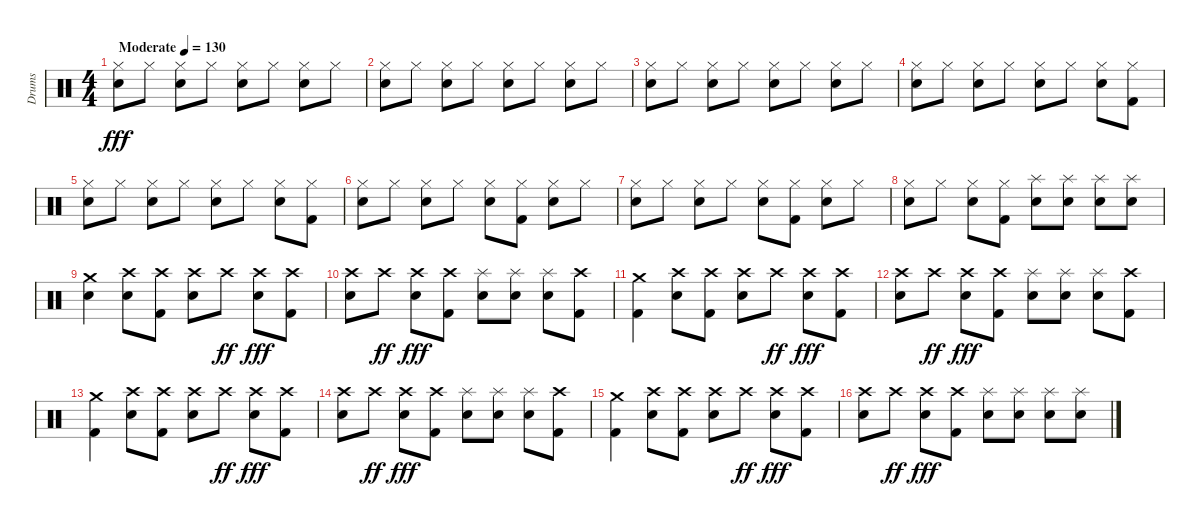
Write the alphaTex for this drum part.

\track ("Drums" "Drums") {instrument percussion}
\staff {score}
\articulation defaults
\ts (4 4)
\tempo (130 "Moderate")
\clef neutral
\ks c
("Hi-Hat (closed)" "Snare (hit) 2").8{dy fff} "Hi-Hat (closed)".8 ("Hi-Hat (closed)" "Snare (hit) 2").8 "Hi-Hat (closed)".8 ("Hi-Hat (closed)" "Snare (hit) 2").8 "Hi-Hat (closed)".8 ("Hi-Hat (closed)" "Snare (hit) 2").8 "Hi-Hat (closed)".8 |
("Hi-Hat (closed)" "Snare (hit) 2").8 "Hi-Hat (closed)".8 ("Hi-Hat (closed)" "Snare (hit) 2").8 "Hi-Hat (closed)".8 ("Hi-Hat (closed)" "Snare (hit) 2").8 "Hi-Hat (closed)".8 ("Hi-Hat (closed)" "Snare (hit) 2").8 "Hi-Hat (closed)".8 |
("Hi-Hat (closed)" "Snare (hit) 2").8 "Hi-Hat (closed)".8 ("Hi-Hat (closed)" "Snare (hit) 2").8 "Hi-Hat (closed)".8 ("Hi-Hat (closed)" "Snare (hit) 2").8 "Hi-Hat (closed)".8 ("Hi-Hat (closed)" "Snare (hit) 2").8 "Hi-Hat (closed)".8 |
("Hi-Hat (closed)" "Snare (hit) 2").8 "Hi-Hat (closed)".8 ("Hi-Hat (closed)" "Snare (hit) 2").8 "Hi-Hat (closed)".8 ("Hi-Hat (closed)" "Snare (hit) 2").8 "Hi-Hat (closed)".8 ("Hi-Hat (closed)" "Snare (hit) 2").8 ("Hi-Hat (closed)" "Kick (hit) 2").8 |
("Hi-Hat (closed)" "Snare (hit) 2").8 "Hi-Hat (closed)".8 ("Hi-Hat (closed)" "Snare (hit) 2").8 "Hi-Hat (closed)".8 ("Hi-Hat (closed)" "Snare (hit) 2").8 "Hi-Hat (closed)".8 ("Hi-Hat (closed)" "Snare (hit) 2").8 ("Hi-Hat (closed)" "Kick (hit) 2").8 |
("Hi-Hat (closed)" "Snare (hit) 2").8 "Hi-Hat (closed)".8 ("Hi-Hat (closed)" "Snare (hit) 2").8 "Hi-Hat (closed)".8 ("Hi-Hat (closed)" "Snare (hit) 2").8 ("Hi-Hat (closed)" "Kick (hit) 2").8 ("Hi-Hat (closed)" "Snare (hit) 2").8 "Hi-Hat (closed)".8 |
("Hi-Hat (closed)" "Snare (hit) 2").8 "Hi-Hat (closed)".8 ("Hi-Hat (closed)" "Snare (hit) 2").8 "Hi-Hat (closed)".8 ("Hi-Hat (closed)" "Snare (hit) 2").8 ("Hi-Hat (closed)" "Kick (hit) 2").8 ("Hi-Hat (closed)" "Snare (hit) 2").8 "Hi-Hat (closed)".8 |
("Hi-Hat (closed)" "Snare (hit) 2").8 "Hi-Hat (closed)".8 ("Hi-Hat (closed)" "Snare (hit) 2").8 ("Hi-Hat (closed)" "Kick (hit) 2").8 ("Splash (hit)" "Snare (hit) 2").8 ("Splash (hit)" "Snare (hit) 2").8 ("Splash (hit)" "Snare (hit) 2").8 ("Splash (hit)" "Snare (hit) 2").8 |
("Crash medium (hit)" "Snare (hit) 2").4 ("Crash high (hit)" "Snare (hit) 2").8 ("Crash high (hit)" "Kick (hit) 2").8 ("Crash high (hit)" "Snare (hit) 2").8 "Crash high (hit)".8{dy ff} ("Crash high (hit)" "Snare (hit) 2").8{dy fff} ("Crash high (hit)" "Kick (hit) 2").8 |
("Crash high (hit)" "Snare (hit) 2").8 "Crash high (hit)".8{dy ff} ("Crash high (hit)" "Snare (hit) 2").8{dy fff} ("Crash high (hit)" "Kick (hit) 2").8 ("Splash (hit)" "Snare (hit) 2").8 ("Splash (hit)" "Snare (hit) 2").8 ("Splash (hit)" "Snare (hit) 2").8 ("Crash high (hit)" "Kick (hit) 2").8 |
("Crash medium (hit)" "Kick (hit) 2").4 ("Crash high (hit)" "Snare (hit) 2").8 ("Crash high (hit)" "Kick (hit) 2").8 ("Crash high (hit)" "Snare (hit) 2").8 "Crash high (hit)".8{dy ff} ("Crash high (hit)" "Snare (hit) 2").8{dy fff} ("Crash high (hit)" "Kick (hit) 2").8 |
("Crash high (hit)" "Snare (hit) 2").8 "Crash high (hit)".8{dy ff} ("Crash high (hit)" "Snare (hit) 2").8{dy fff} ("Crash high (hit)" "Kick (hit) 2").8 ("Splash (hit)" "Snare (hit) 2").8 ("Splash (hit)" "Snare (hit) 2").8 ("Splash (hit)" "Snare (hit) 2").8 ("Crash high (hit)" "Kick (hit) 2").8 |
("Crash medium (hit)" "Kick (hit) 2").4 ("Crash high (hit)" "Snare (hit) 2").8 ("Crash high (hit)" "Kick (hit) 2").8 ("Crash high (hit)" "Snare (hit) 2").8 "Crash high (hit)".8{dy ff} ("Crash high (hit)" "Snare (hit) 2").8{dy fff} ("Crash high (hit)" "Kick (hit) 2").8 |
("Crash high (hit)" "Snare (hit) 2").8 "Crash high (hit)".8{dy ff} ("Crash high (hit)" "Snare (hit) 2").8{dy fff} ("Crash high (hit)" "Kick (hit) 2").8 ("Splash (hit)" "Snare (hit) 2").8 ("Splash (hit)" "Snare (hit) 2").8 ("Splash (hit)" "Snare (hit) 2").8 ("Crash high (hit)" "Kick (hit) 2").8 |
("Crash medium (hit)" "Kick (hit) 2").4 ("Crash high (hit)" "Snare (hit) 2").8 ("Crash high (hit)" "Kick (hit) 2").8 ("Crash high (hit)" "Snare (hit) 2").8 "Crash high (hit)".8{dy ff} ("Crash high (hit)" "Snare (hit) 2").8{dy fff} ("Crash high (hit)" "Kick (hit) 2").8 |
("Crash high (hit)" "Snare (hit) 2").8 "Crash high (hit)".8{dy ff} ("Crash high (hit)" "Snare (hit) 2").8{dy fff} ("Crash high (hit)" "Kick (hit) 2").8 ("Splash (hit)" "Snare (hit) 2").8 ("Splash (hit)" "Snare (hit) 2").8 ("Splash (hit)" "Snare (hit) 2").8 ("Splash (hit)" "Snare (hit) 2").8
